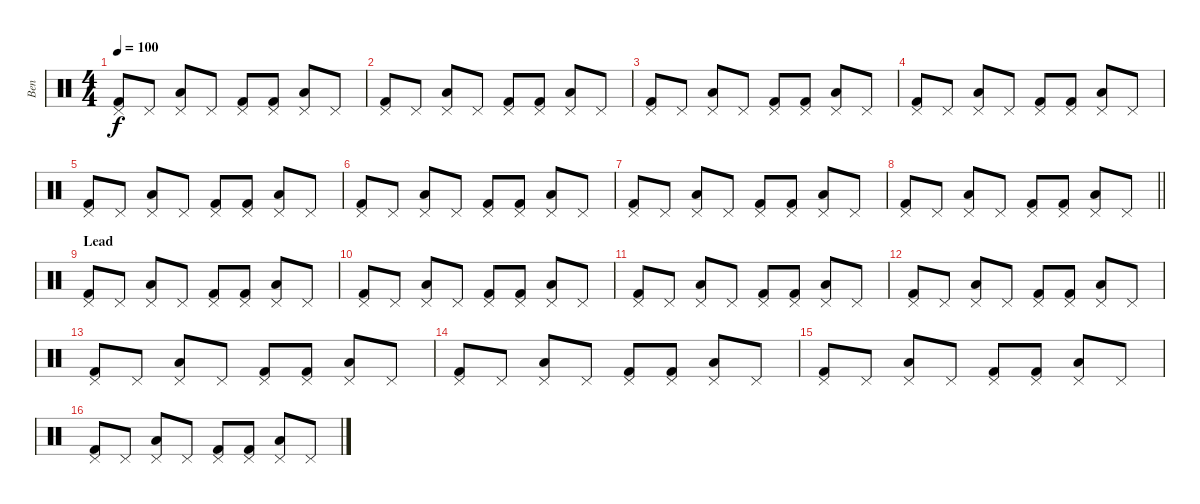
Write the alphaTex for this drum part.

\track ("Ben" "Ben") {instrument percussion}
\staff {score}
\articulation defaults
\ts (4 4)
\tempo 100
\clef neutral
\ks c
("Pedal Hi-Hat (hit)" "Kick (hit) 2").8{dy f} "Pedal Hi-Hat (hit)".8 ("Pedal Hi-Hat (hit)" "Low Floor Tom (hit)").8 "Pedal Hi-Hat (hit)".8 ("Pedal Hi-Hat (hit)" "Kick (hit) 2").8 ("Pedal Hi-Hat (hit)" "Kick (hit) 2").8 ("Pedal Hi-Hat (hit)" "Low Floor Tom (hit)").8 "Pedal Hi-Hat (hit)".8 |
("Pedal Hi-Hat (hit)" "Kick (hit) 2").8 "Pedal Hi-Hat (hit)".8 ("Pedal Hi-Hat (hit)" "Low Floor Tom (hit)").8 "Pedal Hi-Hat (hit)".8 ("Pedal Hi-Hat (hit)" "Kick (hit) 2").8 ("Pedal Hi-Hat (hit)" "Kick (hit) 2").8 ("Pedal Hi-Hat (hit)" "Low Floor Tom (hit)").8 "Pedal Hi-Hat (hit)".8 |
("Pedal Hi-Hat (hit)" "Kick (hit) 2").8 "Pedal Hi-Hat (hit)".8 ("Pedal Hi-Hat (hit)" "Low Floor Tom (hit)").8 "Pedal Hi-Hat (hit)".8 ("Pedal Hi-Hat (hit)" "Kick (hit) 2").8 ("Pedal Hi-Hat (hit)" "Kick (hit) 2").8 ("Pedal Hi-Hat (hit)" "Low Floor Tom (hit)").8 "Pedal Hi-Hat (hit)".8 |
("Pedal Hi-Hat (hit)" "Kick (hit) 2").8 "Pedal Hi-Hat (hit)".8 ("Pedal Hi-Hat (hit)" "Low Floor Tom (hit)").8 "Pedal Hi-Hat (hit)".8 ("Pedal Hi-Hat (hit)" "Kick (hit) 2").8 ("Pedal Hi-Hat (hit)" "Kick (hit) 2").8 ("Pedal Hi-Hat (hit)" "Low Floor Tom (hit)").8 "Pedal Hi-Hat (hit)".8 |
("Pedal Hi-Hat (hit)" "Kick (hit) 2").8 "Pedal Hi-Hat (hit)".8 ("Pedal Hi-Hat (hit)" "Low Floor Tom (hit)").8 "Pedal Hi-Hat (hit)".8 ("Pedal Hi-Hat (hit)" "Kick (hit) 2").8 ("Pedal Hi-Hat (hit)" "Kick (hit) 2").8 ("Pedal Hi-Hat (hit)" "Low Floor Tom (hit)").8 "Pedal Hi-Hat (hit)".8 |
("Pedal Hi-Hat (hit)" "Kick (hit) 2").8 "Pedal Hi-Hat (hit)".8 ("Pedal Hi-Hat (hit)" "Low Floor Tom (hit)").8 "Pedal Hi-Hat (hit)".8 ("Pedal Hi-Hat (hit)" "Kick (hit) 2").8 ("Pedal Hi-Hat (hit)" "Kick (hit) 2").8 ("Pedal Hi-Hat (hit)" "Low Floor Tom (hit)").8 "Pedal Hi-Hat (hit)".8 |
("Pedal Hi-Hat (hit)" "Kick (hit) 2").8 "Pedal Hi-Hat (hit)".8 ("Pedal Hi-Hat (hit)" "Low Floor Tom (hit)").8 "Pedal Hi-Hat (hit)".8 ("Pedal Hi-Hat (hit)" "Kick (hit) 2").8 ("Pedal Hi-Hat (hit)" "Kick (hit) 2").8 ("Pedal Hi-Hat (hit)" "Low Floor Tom (hit)").8 "Pedal Hi-Hat (hit)".8 |
\barLineRight lightlight
("Pedal Hi-Hat (hit)" "Kick (hit) 2").8 "Pedal Hi-Hat (hit)".8 ("Pedal Hi-Hat (hit)" "Low Floor Tom (hit)").8 "Pedal Hi-Hat (hit)".8 ("Pedal Hi-Hat (hit)" "Kick (hit) 2").8 ("Pedal Hi-Hat (hit)" "Kick (hit) 2").8 ("Pedal Hi-Hat (hit)" "Low Floor Tom (hit)").8 "Pedal Hi-Hat (hit)".8 |
\section ("" "Lead")
("Pedal Hi-Hat (hit)" "Kick (hit) 2").8 "Pedal Hi-Hat (hit)".8 ("Pedal Hi-Hat (hit)" "Low Floor Tom (hit)").8 "Pedal Hi-Hat (hit)".8 ("Pedal Hi-Hat (hit)" "Kick (hit) 2").8 ("Pedal Hi-Hat (hit)" "Kick (hit) 2").8 ("Pedal Hi-Hat (hit)" "Low Floor Tom (hit)").8 "Pedal Hi-Hat (hit)".8 |
("Pedal Hi-Hat (hit)" "Kick (hit) 2").8 "Pedal Hi-Hat (hit)".8 ("Pedal Hi-Hat (hit)" "Low Floor Tom (hit)").8 "Pedal Hi-Hat (hit)".8 ("Pedal Hi-Hat (hit)" "Kick (hit) 2").8 ("Pedal Hi-Hat (hit)" "Kick (hit) 2").8 ("Pedal Hi-Hat (hit)" "Low Floor Tom (hit)").8 "Pedal Hi-Hat (hit)".8 |
("Pedal Hi-Hat (hit)" "Kick (hit) 2").8 "Pedal Hi-Hat (hit)".8 ("Pedal Hi-Hat (hit)" "Low Floor Tom (hit)").8 "Pedal Hi-Hat (hit)".8 ("Pedal Hi-Hat (hit)" "Kick (hit) 2").8 ("Pedal Hi-Hat (hit)" "Kick (hit) 2").8 ("Pedal Hi-Hat (hit)" "Low Floor Tom (hit)").8 "Pedal Hi-Hat (hit)".8 |
("Pedal Hi-Hat (hit)" "Kick (hit) 2").8 "Pedal Hi-Hat (hit)".8 ("Pedal Hi-Hat (hit)" "Low Floor Tom (hit)").8 "Pedal Hi-Hat (hit)".8 ("Pedal Hi-Hat (hit)" "Kick (hit) 2").8 ("Pedal Hi-Hat (hit)" "Kick (hit) 2").8 ("Pedal Hi-Hat (hit)" "Low Floor Tom (hit)").8 "Pedal Hi-Hat (hit)".8 |
("Pedal Hi-Hat (hit)" "Kick (hit) 2").8 "Pedal Hi-Hat (hit)".8 ("Pedal Hi-Hat (hit)" "Low Floor Tom (hit)").8 "Pedal Hi-Hat (hit)".8 ("Pedal Hi-Hat (hit)" "Kick (hit) 2").8 ("Pedal Hi-Hat (hit)" "Kick (hit) 2").8 ("Pedal Hi-Hat (hit)" "Low Floor Tom (hit)").8 "Pedal Hi-Hat (hit)".8 |
("Pedal Hi-Hat (hit)" "Kick (hit) 2").8 "Pedal Hi-Hat (hit)".8 ("Pedal Hi-Hat (hit)" "Low Floor Tom (hit)").8 "Pedal Hi-Hat (hit)".8 ("Pedal Hi-Hat (hit)" "Kick (hit) 2").8 ("Pedal Hi-Hat (hit)" "Kick (hit) 2").8 ("Pedal Hi-Hat (hit)" "Low Floor Tom (hit)").8 "Pedal Hi-Hat (hit)".8 |
("Pedal Hi-Hat (hit)" "Kick (hit) 2").8 "Pedal Hi-Hat (hit)".8 ("Pedal Hi-Hat (hit)" "Low Floor Tom (hit)").8 "Pedal Hi-Hat (hit)".8 ("Pedal Hi-Hat (hit)" "Kick (hit) 2").8 ("Pedal Hi-Hat (hit)" "Kick (hit) 2").8 ("Pedal Hi-Hat (hit)" "Low Floor Tom (hit)").8 "Pedal Hi-Hat (hit)".8 |
("Pedal Hi-Hat (hit)" "Kick (hit) 2").8 "Pedal Hi-Hat (hit)".8 ("Pedal Hi-Hat (hit)" "Low Floor Tom (hit)").8 "Pedal Hi-Hat (hit)".8 ("Pedal Hi-Hat (hit)" "Kick (hit) 2").8 ("Pedal Hi-Hat (hit)" "Kick (hit) 2").8 ("Pedal Hi-Hat (hit)" "Low Floor Tom (hit)").8 "Pedal Hi-Hat (hit)".8
